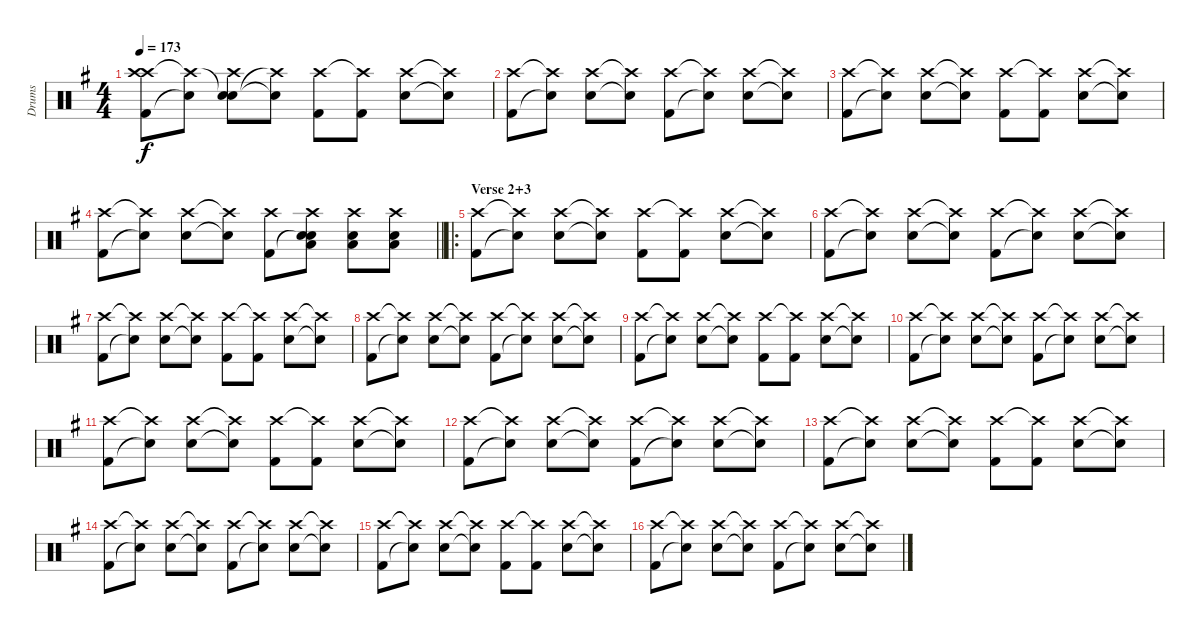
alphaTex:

\track ("Drums" "Drums") {instrument percussion}
\staff {score}
\articulation defaults
\ts (4 4)
\tempo 173
\clef neutral
\ks g
("Kick (hit) 2" "Crash high (hit)" "Crash high (hit)").8{dy f} ("Snare (hit)"{t} "Crash high (hit)"{t}).8 ("Snare (hit) 2" "Snare (hit)"{t} "Crash high (hit)").8 ("Snare (hit)"{t} "Crash high (hit)"{t}).8 ("Kick (hit) 2" "Crash high (hit)").8 ("Kick (hit) 2" "Crash high (hit)"{t}).8 ("Snare (hit) 2" "Crash high (hit)").8 ("Snare (hit)"{t} "Crash high (hit)"{t}).8 |
("Kick (hit) 2" "Crash high (hit)").8 ("Snare (hit)"{t} "Crash high (hit)"{t}).8 ("Snare (hit) 2" "Crash high (hit)").8 ("Snare (hit)"{t} "Crash high (hit)"{t}).8 ("Kick (hit) 2" "Crash high (hit)").8 ("Snare (hit)"{t} "Crash high (hit)"{t}).8 ("Snare (hit) 2" "Crash high (hit)").8 ("Snare (hit)"{t} "Crash high (hit)"{t}).8 |
("Kick (hit) 2" "Crash high (hit)").8 ("Snare (hit)"{t} "Crash high (hit)"{t}).8 ("Snare (hit) 2" "Crash high (hit)").8 ("Snare (hit)"{t} "Crash high (hit)"{t}).8 ("Kick (hit) 2" "Crash high (hit)").8 ("Kick (hit) 2" "Crash high (hit)"{t}).8 ("Snare (hit) 2" "Crash high (hit)").8 ("Snare (hit)"{t} "Crash high (hit)"{t}).8 |
\barLineRight lightlight
("Kick (hit) 2" "Crash high (hit)").8 ("Snare (hit)"{t} "Crash high (hit)"{t}).8 ("Snare (hit) 2" "Crash high (hit)").8 ("Snare (hit)"{t} "Crash high (hit)"{t}).8 ("Kick (hit) 2" "Crash high (hit)").8 ("Snare (hit)"{t} "Snare (hit) 2" "Low Tom (hit)" "Crash high (hit)").8 ("Snare (hit) 2" "Low Tom (hit)" "Crash high (hit)").8 ("Snare (hit) 2" "Low Tom (hit)" "Crash high (hit)").8 |
\ro
\section ("" "Verse 2+3")
("Kick (hit) 2" "Crash high (hit)").8 ("Snare (hit)"{t} "Crash high (hit)"{t}).8 ("Snare (hit) 2" "Crash high (hit)").8 ("Snare (hit)"{t} "Crash high (hit)"{t}).8 ("Kick (hit) 2" "Crash high (hit)").8 ("Kick (hit) 2" "Crash high (hit)"{t}).8 ("Snare (hit) 2" "Crash high (hit)").8 ("Snare (hit)"{t} "Crash high (hit)"{t}).8 |
("Kick (hit) 2" "Crash high (hit)").8 ("Snare (hit)"{t} "Crash high (hit)"{t}).8 ("Snare (hit) 2" "Crash high (hit)").8 ("Snare (hit)"{t} "Crash high (hit)"{t}).8 ("Kick (hit) 2" "Crash high (hit)").8 ("Snare (hit)"{t} "Crash high (hit)"{t}).8 ("Snare (hit) 2" "Crash high (hit)").8 ("Snare (hit)"{t} "Crash high (hit)"{t}).8 |
("Kick (hit) 2" "Crash high (hit)").8 ("Snare (hit)"{t} "Crash high (hit)"{t}).8 ("Snare (hit) 2" "Crash high (hit)").8 ("Snare (hit)"{t} "Crash high (hit)"{t}).8 ("Kick (hit) 2" "Crash high (hit)").8 ("Kick (hit) 2" "Crash high (hit)"{t}).8 ("Snare (hit) 2" "Crash high (hit)").8 ("Snare (hit)"{t} "Crash high (hit)"{t}).8 |
("Kick (hit) 2" "Crash high (hit)").8 ("Snare (hit)"{t} "Crash high (hit)"{t}).8 ("Snare (hit) 2" "Crash high (hit)").8 ("Snare (hit)"{t} "Crash high (hit)"{t}).8 ("Kick (hit) 2" "Crash high (hit)").8 ("Snare (hit)"{t} "Crash high (hit)"{t}).8 ("Snare (hit) 2" "Crash high (hit)").8 ("Snare (hit)"{t} "Crash high (hit)"{t}).8 |
("Kick (hit) 2" "Crash high (hit)").8 ("Snare (hit)"{t} "Crash high (hit)"{t}).8 ("Snare (hit) 2" "Crash high (hit)").8 ("Snare (hit)"{t} "Crash high (hit)"{t}).8 ("Kick (hit) 2" "Crash high (hit)").8 ("Kick (hit) 2" "Crash high (hit)"{t}).8 ("Snare (hit) 2" "Crash high (hit)").8 ("Snare (hit)"{t} "Crash high (hit)"{t}).8 |
("Kick (hit) 2" "Crash high (hit)").8 ("Snare (hit)"{t} "Crash high (hit)"{t}).8 ("Snare (hit) 2" "Crash high (hit)").8 ("Snare (hit)"{t} "Crash high (hit)"{t}).8 ("Kick (hit) 2" "Crash high (hit)").8 ("Snare (hit)"{t} "Crash high (hit)"{t}).8 ("Snare (hit) 2" "Crash high (hit)").8 ("Snare (hit)"{t} "Crash high (hit)"{t}).8 |
("Kick (hit) 2" "Crash high (hit)").8 ("Snare (hit)"{t} "Crash high (hit)"{t}).8 ("Snare (hit) 2" "Crash high (hit)").8 ("Snare (hit)"{t} "Crash high (hit)"{t}).8 ("Kick (hit) 2" "Crash high (hit)").8 ("Kick (hit) 2" "Crash high (hit)"{t}).8 ("Snare (hit) 2" "Crash high (hit)").8 ("Snare (hit)"{t} "Crash high (hit)"{t}).8 |
("Kick (hit) 2" "Crash high (hit)").8 ("Snare (hit)"{t} "Crash high (hit)"{t}).8 ("Snare (hit) 2" "Crash high (hit)").8 ("Snare (hit)"{t} "Crash high (hit)"{t}).8 ("Kick (hit) 2" "Crash high (hit)").8 ("Snare (hit)"{t} "Crash high (hit)"{t}).8 ("Snare (hit) 2" "Crash high (hit)").8 ("Snare (hit)"{t} "Crash high (hit)"{t}).8 |
("Kick (hit) 2" "Crash high (hit)").8 ("Snare (hit)"{t} "Crash high (hit)"{t}).8 ("Snare (hit) 2" "Crash high (hit)").8 ("Snare (hit)"{t} "Crash high (hit)"{t}).8 ("Kick (hit) 2" "Crash high (hit)").8 ("Kick (hit) 2" "Crash high (hit)"{t}).8 ("Snare (hit) 2" "Crash high (hit)").8 ("Snare (hit)"{t} "Crash high (hit)"{t}).8 |
("Kick (hit) 2" "Crash high (hit)").8 ("Snare (hit)"{t} "Crash high (hit)"{t}).8 ("Snare (hit) 2" "Crash high (hit)").8 ("Snare (hit)"{t} "Crash high (hit)"{t}).8 ("Kick (hit) 2" "Crash high (hit)").8 ("Snare (hit)"{t} "Crash high (hit)"{t}).8 ("Snare (hit) 2" "Crash high (hit)").8 ("Snare (hit)"{t} "Crash high (hit)"{t}).8 |
("Kick (hit) 2" "Crash high (hit)").8 ("Snare (hit)"{t} "Crash high (hit)"{t}).8 ("Snare (hit) 2" "Crash high (hit)").8 ("Snare (hit)"{t} "Crash high (hit)"{t}).8 ("Kick (hit) 2" "Crash high (hit)").8 ("Kick (hit) 2" "Crash high (hit)"{t}).8 ("Snare (hit) 2" "Crash high (hit)").8 ("Snare (hit)"{t} "Crash high (hit)"{t}).8 |
("Kick (hit) 2" "Crash high (hit)").8 ("Snare (hit)"{t} "Crash high (hit)"{t}).8 ("Snare (hit) 2" "Crash high (hit)").8 ("Snare (hit)"{t} "Crash high (hit)"{t}).8 ("Kick (hit) 2" "Crash high (hit)").8 ("Snare (hit)"{t} "Crash high (hit)"{t}).8 ("Snare (hit) 2" "Crash high (hit)").8 ("Snare (hit)"{t} "Crash high (hit)"{t}).8
